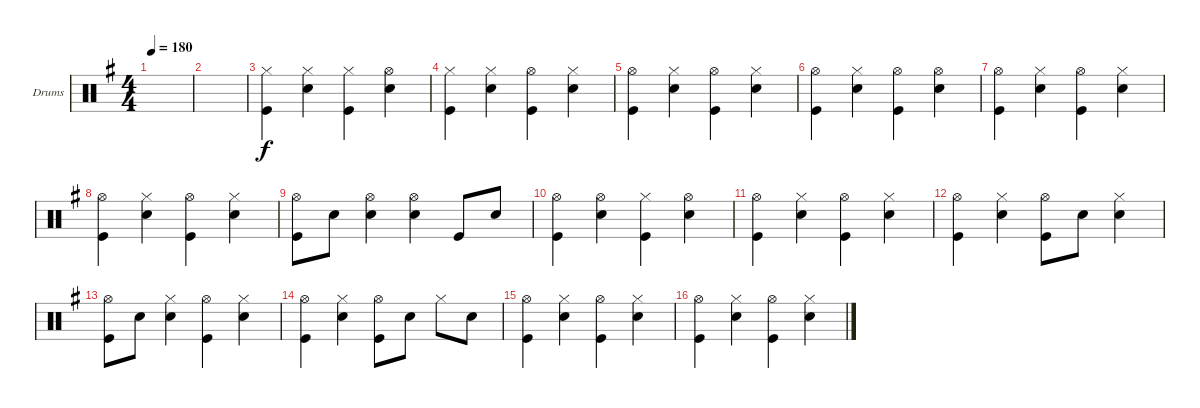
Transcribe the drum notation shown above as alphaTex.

\defaultSystemsLayout 4
\bracketExtendMode groupsimilarinstruments
\firstSystemTrackNameOrientation horizontal
\otherSystemsTrackNameOrientation horizontal
\track ("Drumkit" "Drums") {instrument percussion}
\staff {score}
\articulation defaults
\ts (4 4)
\tempo 180
\clef neutral
\ks g
|
|
("Hi-Hat (closed)" "Kick (hit)").4 ("Snare (hit) 2" "Hi-Hat (closed)").4 ("Hi-Hat (closed)" "Kick (hit)").4 ("Snare (hit) 2" "Hi-Hat (open)").4 |
("Hi-Hat (closed)" "Kick (hit)").4 ("Snare (hit) 2" "Hi-Hat (closed)").4 ("Hi-Hat (open)" "Kick (hit)").4 ("Snare (hit) 2" "Hi-Hat (closed)").4 |
("Hi-Hat (open)" "Kick (hit)").4 ("Snare (hit) 2" "Hi-Hat (closed)").4 ("Hi-Hat (open)" "Kick (hit)").4 ("Snare (hit) 2" "Hi-Hat (closed)").4 |
("Hi-Hat (open)" "Kick (hit)").4 ("Snare (hit) 2" "Hi-Hat (closed)").4 ("Hi-Hat (open)" "Kick (hit)").4 ("Snare (hit) 2" "Hi-Hat (open)").4 |
("Hi-Hat (open)" "Kick (hit)").4 ("Snare (hit) 2" "Hi-Hat (closed)").4 ("Hi-Hat (open)" "Kick (hit)").4 ("Snare (hit) 2" "Hi-Hat (closed)").4 |
("Hi-Hat (open)" "Kick (hit)").4 ("Snare (hit) 2" "Hi-Hat (closed)").4 ("Hi-Hat (open)" "Kick (hit)").4 ("Snare (hit) 2" "Hi-Hat (closed)").4 |
("Hi-Hat (open)" "Kick (hit)").8 "Snare (hit) 2".8 ("Snare (hit) 2" "Hi-Hat (open)").4 ("Hi-Hat (open)" "Snare (hit) 2").4 "Kick (hit)".8 "Snare (hit) 2".8 |
("Hi-Hat (open)" "Kick (hit)").4 ("Snare (hit) 2" "Hi-Hat (open)").4 ("Hi-Hat (closed)" "Kick (hit)").4 ("Snare (hit) 2" "Hi-Hat (open)").4 |
("Hi-Hat (open)" "Kick (hit)").4 ("Snare (hit) 2" "Hi-Hat (closed)").4 ("Hi-Hat (open)" "Kick (hit)").4 ("Snare (hit) 2" "Hi-Hat (closed)").4 |
("Hi-Hat (open)" "Kick (hit)").4 ("Snare (hit) 2" "Hi-Hat (closed)").4 ("Hi-Hat (open)" "Kick (hit)").8 "Snare (hit) 2".8 ("Snare (hit) 2" "Hi-Hat (closed)").4 |
("Hi-Hat (open)" "Kick (hit)").8 "Snare (hit) 2".8 ("Snare (hit) 2" "Hi-Hat (closed)").4 ("Hi-Hat (open)" "Kick (hit)").4 ("Snare (hit) 2" "Hi-Hat (closed)").4 |
("Hi-Hat (open)" "Kick (hit)").4 ("Snare (hit) 2" "Hi-Hat (closed)").4 ("Hi-Hat (open)" "Kick (hit)").8 "Snare (hit) 2".8 "Hi-Hat (closed)".8 "Snare (hit) 2".8 |
("Hi-Hat (open)" "Kick (hit)").4 ("Snare (hit) 2" "Hi-Hat (closed)").4 ("Hi-Hat (open)" "Kick (hit)").4 ("Snare (hit) 2" "Hi-Hat (closed)").4 |
("Hi-Hat (open)" "Kick (hit)").4 ("Snare (hit) 2" "Hi-Hat (closed)").4 ("Hi-Hat (open)" "Kick (hit)").4 ("Snare (hit) 2" "Hi-Hat (closed)").4
